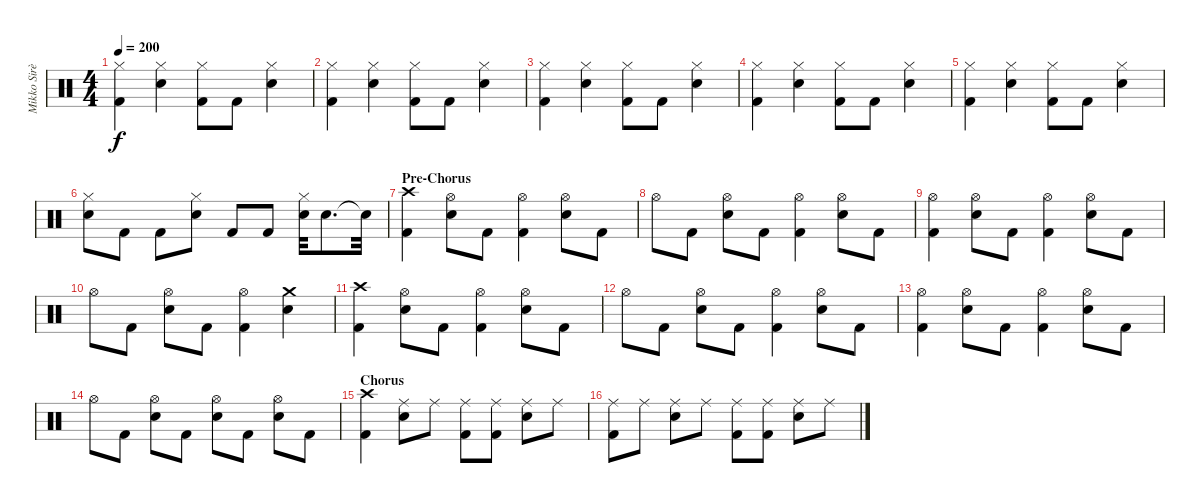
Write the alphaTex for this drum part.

\track ("Mikko Sirèn" "Mikko Sirè") {instrument percussion}
\staff {score}
\articulation defaults
\ts (4 4)
\tempo 200
\clef neutral
\ks c
("Hi-Hat (closed)" "Kick (hit) 2").4{dy f} ("Hi-Hat (closed)" "Electric Snare (hit)").4 ("Hi-Hat (closed)" "Kick (hit) 2").8 "Kick (hit) 2".8 ("Hi-Hat (closed)" "Electric Snare (hit)").4 |
("Hi-Hat (closed)" "Kick (hit) 2").4 ("Hi-Hat (closed)" "Electric Snare (hit)").4 ("Hi-Hat (closed)" "Kick (hit) 2").8 "Kick (hit) 2".8 ("Hi-Hat (closed)" "Electric Snare (hit)").4 |
("Hi-Hat (closed)" "Kick (hit) 2").4 ("Hi-Hat (closed)" "Electric Snare (hit)").4 ("Hi-Hat (closed)" "Kick (hit) 2").8 "Kick (hit) 2".8 ("Hi-Hat (closed)" "Electric Snare (hit)").4 |
("Hi-Hat (closed)" "Kick (hit) 2").4 ("Hi-Hat (closed)" "Electric Snare (hit)").4 ("Hi-Hat (closed)" "Kick (hit) 2").8 "Kick (hit) 2".8 ("Hi-Hat (closed)" "Electric Snare (hit)").4 |
("Hi-Hat (closed)" "Kick (hit) 2").4 ("Hi-Hat (closed)" "Electric Snare (hit)").4 ("Hi-Hat (closed)" "Kick (hit) 2").8 "Kick (hit) 2".8 ("Hi-Hat (closed)" "Electric Snare (hit)").4 |
("Hi-Hat (closed)" "Electric Snare (hit)").8 "Kick (hit) 2".8 "Kick (hit) 2".8 ("Hi-Hat (closed)" "Electric Snare (hit)").8 "Kick (hit) 2".8 "Kick (hit) 2".8 ("Hi-Hat (closed)" "Electric Snare (hit)").32 "Electric Snare (hit)".8{d} "Electric Snare (hit)"{t}.32 |
\section ("" "Pre-Chorus")
("Crash high (hit)" "Kick (hit) 2").4 ("Hi-Hat (open)" "Electric Snare (hit)").8 "Kick (hit) 2".8 ("Hi-Hat (open)" "Kick (hit) 2").4 ("Hi-Hat (open)" "Electric Snare (hit)").8 "Kick (hit) 2".8 |
"Hi-Hat (open)".8 "Kick (hit) 2".8 ("Hi-Hat (open)" "Electric Snare (hit)").8 "Kick (hit) 2".8 ("Hi-Hat (open)" "Kick (hit) 2").4 ("Hi-Hat (open)" "Electric Snare (hit)").8 "Kick (hit) 2".8 |
("Hi-Hat (open)" "Kick (hit) 2").4 ("Hi-Hat (open)" "Electric Snare (hit)").8 "Kick (hit) 2".8 ("Hi-Hat (open)" "Kick (hit) 2").4 ("Hi-Hat (open)" "Electric Snare (hit)").8 "Kick (hit) 2".8 |
"Hi-Hat (open)".8 "Kick (hit) 2".8 ("Hi-Hat (open)" "Electric Snare (hit)").8 "Kick (hit) 2".8 ("Hi-Hat (open)" "Kick (hit) 2").4 ("Crash medium (hit)" "Electric Snare (hit)").4 |
("Crash high (hit)" "Kick (hit) 2").4 ("Hi-Hat (open)" "Electric Snare (hit)").8 "Kick (hit) 2".8 ("Hi-Hat (open)" "Kick (hit) 2").4 ("Hi-Hat (open)" "Electric Snare (hit)").8 "Kick (hit) 2".8 |
"Hi-Hat (open)".8 "Kick (hit) 2".8 ("Hi-Hat (open)" "Electric Snare (hit)").8 "Kick (hit) 2".8 ("Hi-Hat (open)" "Kick (hit) 2").4 ("Hi-Hat (open)" "Electric Snare (hit)").8 "Kick (hit) 2".8 |
("Hi-Hat (open)" "Kick (hit) 2").4 ("Hi-Hat (open)" "Electric Snare (hit)").8 "Kick (hit) 2".8 ("Hi-Hat (open)" "Kick (hit) 2").4 ("Hi-Hat (open)" "Electric Snare (hit)").8 "Kick (hit) 2".8 |
"Hi-Hat (open)".8 "Kick (hit) 2".8 ("Hi-Hat (open)" "Electric Snare (hit)").8 "Kick (hit) 2".8 ("Hi-Hat (open)" "Electric Snare (hit)").8 "Kick (hit) 2".8 ("Hi-Hat (open)" "Electric Snare (hit)").8 "Kick (hit) 2".8 |
\section ("" "Chorus")
("Crash high (hit)" "Kick (hit) 2").4 ("Ride (middle)" "Electric Snare (hit)").8 "Ride (middle)".8 ("Ride (middle)" "Kick (hit) 2").8 ("Ride (middle)" "Kick (hit) 2").8 ("Ride (middle)" "Electric Snare (hit)").8 "Ride (middle)".8 |
("Ride (middle)" "Kick (hit) 2").8 "Ride (middle)".8 ("Ride (middle)" "Electric Snare (hit)").8 "Ride (middle)".8 ("Ride (middle)" "Kick (hit) 2").8 ("Ride (middle)" "Kick (hit) 2").8 ("Ride (middle)" "Electric Snare (hit)").8 "Ride (middle)".8
